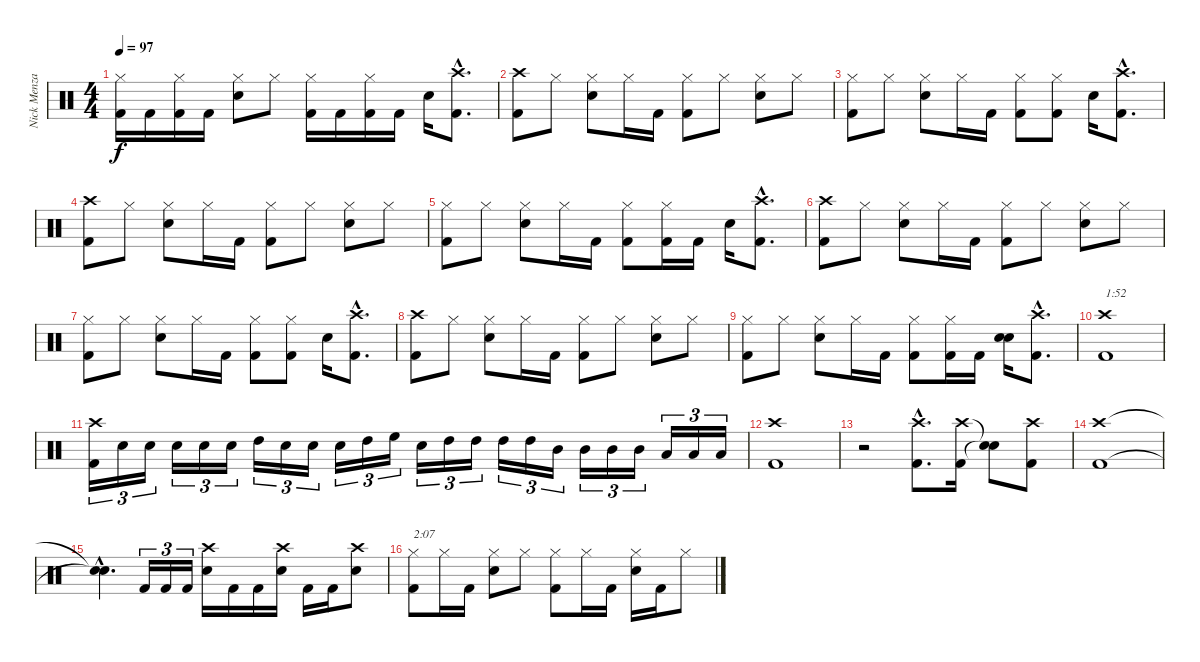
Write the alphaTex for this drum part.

\track ("Nick Menza" "Nick Menza") {instrument percussion}
\staff {score}
\articulation defaults
\ts (4 4)
\tempo 97
\clef neutral
\ks c
("Hi-Hat (closed)" "Kick (hit) 2").16{dy f} "Kick (hit) 2".16 ("Hi-Hat (closed)" "Kick (hit) 2").16 "Kick (hit) 2".16 ("Hi-Hat (closed)" "Electric Snare (hit)").8 "Hi-Hat (closed)".8 ("Hi-Hat (closed)" "Kick (hit) 2").16 "Kick (hit) 2".16 ("Hi-Hat (closed)" "Kick (hit) 2").16 "Kick (hit) 2".16 "Electric Snare (hit)".16 ("Crash high (hit)"{hac} "Kick (hit) 2"{hac}).8{d} |
("Crash high (hit)" "Kick (hit) 2").8 "Hi-Hat (closed)".8 ("Hi-Hat (closed)" "Electric Snare (hit)").8 "Hi-Hat (closed)".16 "Kick (hit) 2".16 ("Hi-Hat (closed)" "Kick (hit) 2").8 "Hi-Hat (closed)".8 ("Hi-Hat (closed)" "Electric Snare (hit)").8 "Hi-Hat (closed)".8 |
("Hi-Hat (closed)" "Kick (hit) 2").8 "Hi-Hat (closed)".8 ("Hi-Hat (closed)" "Electric Snare (hit)").8 "Hi-Hat (closed)".16 "Kick (hit) 2".16 ("Hi-Hat (closed)" "Kick (hit) 2").8 ("Hi-Hat (closed)" "Kick (hit) 2").8 "Electric Snare (hit)".16 ("Crash high (hit)"{hac} "Kick (hit) 2"{hac}).8{d} |
("Crash high (hit)" "Kick (hit) 2").8 "Hi-Hat (closed)".8 ("Hi-Hat (closed)" "Electric Snare (hit)").8 "Hi-Hat (closed)".16 "Kick (hit) 2".16 ("Hi-Hat (closed)" "Kick (hit) 2").8 "Hi-Hat (closed)".8 ("Hi-Hat (closed)" "Electric Snare (hit)").8 "Hi-Hat (closed)".8 |
("Hi-Hat (closed)" "Kick (hit) 2").8 "Hi-Hat (closed)".8 ("Hi-Hat (closed)" "Electric Snare (hit)").8 "Hi-Hat (closed)".16 "Kick (hit) 2".16 ("Hi-Hat (closed)" "Kick (hit) 2").8 ("Hi-Hat (closed)" "Kick (hit) 2").16 "Kick (hit) 2".16 "Electric Snare (hit)".16 ("Crash high (hit)"{hac} "Kick (hit) 2"{hac}).8{d} |
("Crash high (hit)" "Kick (hit) 2").8 "Hi-Hat (closed)".8 ("Hi-Hat (closed)" "Electric Snare (hit)").8 "Hi-Hat (closed)".16 "Kick (hit) 2".16 ("Hi-Hat (closed)" "Kick (hit) 2").8 "Hi-Hat (closed)".8 ("Hi-Hat (closed)" "Electric Snare (hit)").8 "Hi-Hat (closed)".8 |
("Hi-Hat (closed)" "Kick (hit) 2").8 "Hi-Hat (closed)".8 ("Hi-Hat (closed)" "Electric Snare (hit)").8 "Hi-Hat (closed)".16 "Kick (hit) 2".16 ("Hi-Hat (closed)" "Kick (hit) 2").8 ("Hi-Hat (closed)" "Kick (hit) 2").8 "Electric Snare (hit)".16 ("Crash high (hit)"{hac} "Kick (hit) 2"{hac}).8{d} |
("Crash high (hit)" "Kick (hit) 2").8 "Hi-Hat (closed)".8 ("Hi-Hat (closed)" "Electric Snare (hit)").8 "Hi-Hat (closed)".16 "Kick (hit) 2".16 ("Hi-Hat (closed)" "Kick (hit) 2").8 "Hi-Hat (closed)".8 ("Hi-Hat (closed)" "Electric Snare (hit)").8 "Hi-Hat (closed)".8 |
("Hi-Hat (closed)" "Kick (hit) 2").8 "Hi-Hat (closed)".8 ("Hi-Hat (closed)" "Electric Snare (hit)").8 "Hi-Hat (closed)".16 "Kick (hit) 2".16 ("Hi-Hat (closed)" "Kick (hit) 2").8 ("Hi-Hat (closed)" "Kick (hit) 2").16 "Kick (hit) 2".16 ("Electric Snare (hit)" "Electric Snare (hit)").16 ("Crash high (hit)"{hac} "Kick (hit) 2"{hac}).8{d} |
("Crash high (hit)" "Kick (hit) 2").1{txt "1:52"} |
("Crash high (hit)" "Kick (hit) 2").16{tu (3 2)} "Electric Snare (hit)".16{tu (3 2)} "Electric Snare (hit)".16{tu (3 2)} "Electric Snare (hit)".16{tu (3 2)} "Electric Snare (hit)".16{tu (3 2)} "Electric Snare (hit)".16{tu (3 2)} "High Tom (hit)".16{tu (3 2)} "Electric Snare (hit)".16{tu (3 2)} "Electric Snare (hit)".16{tu (3 2)} "Electric Snare (hit)".16{tu (3 2)} "High Tom (hit)".16{tu (3 2)} "High Floor Tom (hit)".16{tu (3 2)} "Electric Snare (hit)".16{tu (3 2)} "High Tom (hit)".16{tu (3 2)} "High Tom (hit)".16{tu (3 2)} "High Tom (hit)".16{tu (3 2)} "High Tom (hit)".16{tu (3 2)} "Mid Tom (hit)".16{tu (3 2)} "Mid Tom (hit)".16{tu (3 2)} "Mid Tom (hit)".16{tu (3 2)} "Mid Tom (hit)".16{tu (3 2)} "Low Tom (hit)".16{tu (3 2)} "Low Tom (hit)".16{tu (3 2)} "Low Tom (hit)".16{tu (3 2)} |
("Crash high (hit)" "Kick (hit) 2").1 |
r.2 ("Crash high (hit)"{hac} "Kick (hit) 2"{hac}).8{d} ("Crash high (hit)" "Kick (hit) 2").16 ("Snare (hit)"{t} "Snare (hit)"{t}).8 ("Crash high (hit)" "Kick (hit) 2").8 |
("Crash high (hit)" "Kick (hit) 2").1 |
("Snare (hit)"{hac t} "Snare (hit)"{hac t}).4{d} "Kick (hit) 2".16{tu (3 2)} "Kick (hit) 2".16{tu (3 2)} "Kick (hit) 2".16{tu (3 2)} ("Crash high (hit)" "Electric Snare (hit)").16 "Kick (hit) 2".16 "Kick (hit) 2".16 ("Crash high (hit)" "Electric Snare (hit)").16 "Kick (hit) 2".16 "Kick (hit) 2".16 ("Crash high (hit)" "Electric Snare (hit)").8 |
("Hi-Hat (closed)" "Kick (hit) 2").8{txt "2:07"} "Hi-Hat (closed)".16 "Kick (hit) 2".16 ("Hi-Hat (closed)" "Electric Snare (hit)").8 "Hi-Hat (closed)".8 ("Hi-Hat (closed)" "Kick (hit) 2").8 "Hi-Hat (closed)".16 "Kick (hit) 2".16 ("Hi-Hat (closed)" "Electric Snare (hit)").16 "Kick (hit) 2".16 "Hi-Hat (closed)".8
